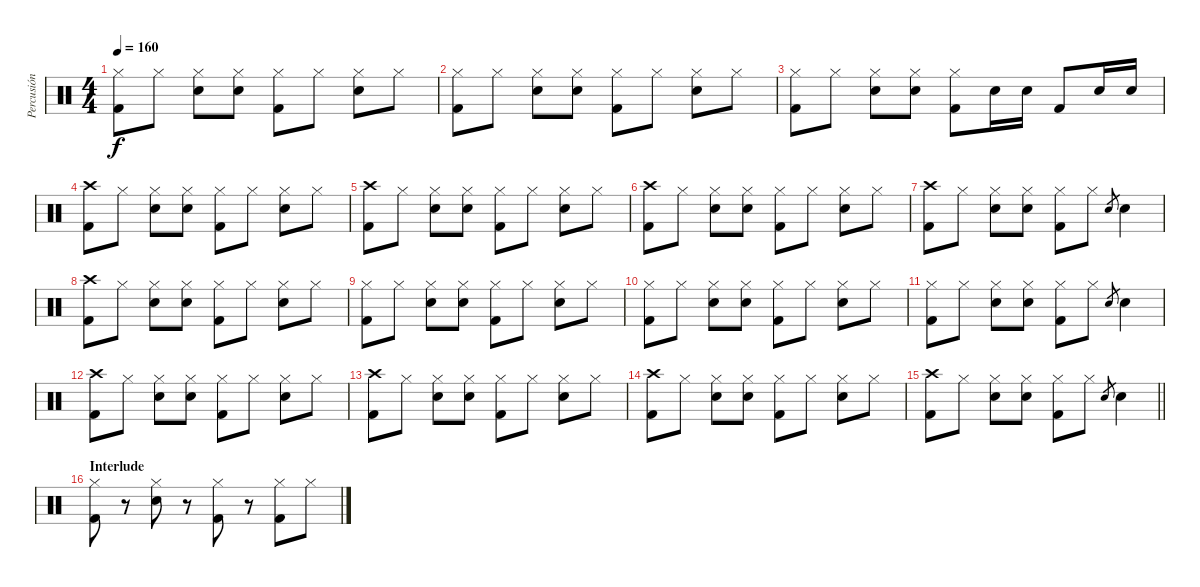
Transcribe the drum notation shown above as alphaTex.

\track ("Percusión" "Percusión") {instrument percussion}
\staff {score}
\articulation defaults
\ts (4 4)
\tempo 160
\clef neutral
\ks c
("Hi-Hat (closed)" "Kick (hit) 2").8{dy f} "Hi-Hat (closed)".8 ("Hi-Hat (closed)" "Snare (hit) 2").8 ("Hi-Hat (closed)" "Snare (hit) 2").8 ("Hi-Hat (closed)" "Kick (hit) 2").8 "Hi-Hat (closed)".8 ("Hi-Hat (closed)" "Snare (hit) 2").8 "Hi-Hat (closed)".8 |
("Hi-Hat (closed)" "Kick (hit) 2").8 "Hi-Hat (closed)".8 ("Hi-Hat (closed)" "Snare (hit) 2").8 ("Hi-Hat (closed)" "Snare (hit) 2").8 ("Hi-Hat (closed)" "Kick (hit) 2").8 "Hi-Hat (closed)".8 ("Hi-Hat (closed)" "Snare (hit) 2").8 "Hi-Hat (closed)".8 |
("Hi-Hat (closed)" "Kick (hit) 2").8 "Hi-Hat (closed)".8 ("Hi-Hat (closed)" "Snare (hit) 2").8 ("Hi-Hat (closed)" "Snare (hit) 2").8 ("Hi-Hat (closed)" "Kick (hit) 2").8 "Electric Snare (hit)".16 "Electric Snare (hit)".16 "Kick (hit) 2".8 "Electric Snare (hit)".16 "Electric Snare (hit)".16 |
("Crash high (hit)" "Kick (hit) 2").8 "Hi-Hat (closed)".8 ("Hi-Hat (closed)" "Snare (hit) 2").8 ("Hi-Hat (closed)" "Snare (hit) 2").8 ("Hi-Hat (closed)" "Kick (hit) 2").8 "Hi-Hat (closed)".8 ("Hi-Hat (closed)" "Snare (hit) 2").8 "Hi-Hat (closed)".8 |
("Crash high (hit)" "Kick (hit) 2").8 "Hi-Hat (closed)".8 ("Hi-Hat (closed)" "Snare (hit) 2").8 ("Hi-Hat (closed)" "Snare (hit) 2").8 ("Hi-Hat (closed)" "Kick (hit) 2").8 "Hi-Hat (closed)".8 ("Hi-Hat (closed)" "Snare (hit) 2").8 "Hi-Hat (closed)".8 |
("Crash high (hit)" "Kick (hit) 2").8 "Hi-Hat (closed)".8 ("Hi-Hat (closed)" "Snare (hit) 2").8 ("Hi-Hat (closed)" "Snare (hit) 2").8 ("Hi-Hat (closed)" "Kick (hit) 2").8 "Hi-Hat (closed)".8 ("Hi-Hat (closed)" "Snare (hit) 2").8 "Hi-Hat (closed)".8 |
("Crash high (hit)" "Kick (hit) 2").8 "Hi-Hat (closed)".8 ("Hi-Hat (closed)" "Snare (hit) 2").8 ("Hi-Hat (closed)" "Snare (hit) 2").8 ("Hi-Hat (closed)" "Kick (hit) 2").8 "Hi-Hat (closed)".8 "Snare (hit) 2".8{gr} "Snare (hit) 2".4 |
("Crash high (hit)" "Kick (hit) 2").8 "Hi-Hat (closed)".8 ("Hi-Hat (closed)" "Snare (hit) 2").8 ("Hi-Hat (closed)" "Snare (hit) 2").8 ("Hi-Hat (closed)" "Kick (hit) 2").8 "Hi-Hat (closed)".8 ("Hi-Hat (closed)" "Snare (hit) 2").8 "Hi-Hat (closed)".8 |
("Hi-Hat (closed)" "Kick (hit) 2").8 "Hi-Hat (closed)".8 ("Hi-Hat (closed)" "Snare (hit) 2").8 ("Hi-Hat (closed)" "Snare (hit) 2").8 ("Hi-Hat (closed)" "Kick (hit) 2").8 "Hi-Hat (closed)".8 ("Hi-Hat (closed)" "Snare (hit) 2").8 "Hi-Hat (closed)".8 |
("Hi-Hat (closed)" "Kick (hit) 2").8 "Hi-Hat (closed)".8 ("Hi-Hat (closed)" "Snare (hit) 2").8 ("Hi-Hat (closed)" "Snare (hit) 2").8 ("Hi-Hat (closed)" "Kick (hit) 2").8 "Hi-Hat (closed)".8 ("Hi-Hat (closed)" "Snare (hit) 2").8 "Hi-Hat (closed)".8 |
("Hi-Hat (closed)" "Kick (hit) 2").8 "Hi-Hat (closed)".8 ("Hi-Hat (closed)" "Snare (hit) 2").8 ("Hi-Hat (closed)" "Snare (hit) 2").8 ("Hi-Hat (closed)" "Kick (hit) 2").8 "Hi-Hat (closed)".8 "Snare (hit) 2".8{gr} "Snare (hit) 2".4 |
("Crash high (hit)" "Kick (hit) 2").8 "Hi-Hat (closed)".8 ("Hi-Hat (closed)" "Snare (hit) 2").8 ("Hi-Hat (closed)" "Snare (hit) 2").8 ("Hi-Hat (closed)" "Kick (hit) 2").8 "Hi-Hat (closed)".8 ("Hi-Hat (closed)" "Snare (hit) 2").8 "Hi-Hat (closed)".8 |
("Crash high (hit)" "Kick (hit) 2").8 "Hi-Hat (closed)".8 ("Hi-Hat (closed)" "Snare (hit) 2").8 ("Hi-Hat (closed)" "Snare (hit) 2").8 ("Hi-Hat (closed)" "Kick (hit) 2").8 "Hi-Hat (closed)".8 ("Hi-Hat (closed)" "Snare (hit) 2").8 "Hi-Hat (closed)".8 |
("Crash high (hit)" "Kick (hit) 2").8 "Hi-Hat (closed)".8 ("Hi-Hat (closed)" "Snare (hit) 2").8 ("Hi-Hat (closed)" "Snare (hit) 2").8 ("Hi-Hat (closed)" "Kick (hit) 2").8 "Hi-Hat (closed)".8 ("Hi-Hat (closed)" "Snare (hit) 2").8 "Hi-Hat (closed)".8 |
\barLineRight lightlight
("Crash high (hit)" "Kick (hit) 2").8 "Hi-Hat (closed)".8 ("Hi-Hat (closed)" "Snare (hit) 2").8 ("Hi-Hat (closed)" "Snare (hit) 2").8 ("Hi-Hat (closed)" "Kick (hit) 2").8 "Hi-Hat (closed)".8 "Snare (hit) 2".8{gr} "Snare (hit) 2".4 |
\section ("" "Interlude")
("Hi-Hat (closed)" "Kick (hit) 2").8 r.8 ("Hi-Hat (closed)" "Snare (hit) 2").8 r.8 ("Hi-Hat (closed)" "Kick (hit) 2").8 r.8 ("Hi-Hat (closed)" "Kick (hit) 2").8 "Hi-Hat (closed)".8
